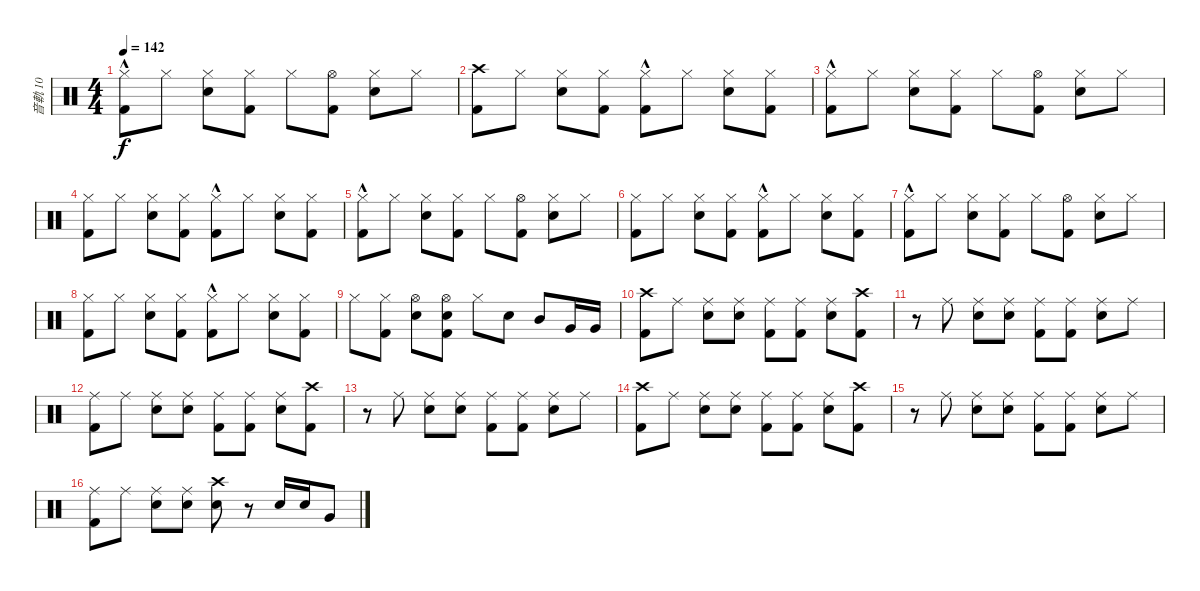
\track ("音軌 10" "音軌 10") {instrument percussion}
\staff {score}
\articulation defaults
\ts (4 4)
\tempo 142
\clef neutral
\ks c
("Hi-Hat (closed)"{hac} "Kick (hit) 2").8{dy f} "Hi-Hat (closed)".8 ("Hi-Hat (closed)" "Electric Snare (hit)").8 ("Hi-Hat (closed)" "Kick (hit) 2").8 "Hi-Hat (closed)".8 ("Hi-Hat (open)" "Kick (hit) 2").8 ("Hi-Hat (closed)" "Electric Snare (hit)").8 "Hi-Hat (closed)".8 |
("Crash high (hit)" "Kick (hit) 2").8 "Hi-Hat (closed)".8 ("Hi-Hat (closed)" "Electric Snare (hit)").8 ("Hi-Hat (closed)" "Kick (hit) 2").8 ("Hi-Hat (closed)"{hac} "Kick (hit) 2").8 "Hi-Hat (closed)".8 ("Hi-Hat (closed)" "Electric Snare (hit)").8 ("Hi-Hat (closed)" "Kick (hit) 2").8 |
("Hi-Hat (closed)"{hac} "Kick (hit) 2").8 "Hi-Hat (closed)".8 ("Hi-Hat (closed)" "Electric Snare (hit)").8 ("Hi-Hat (closed)" "Kick (hit) 2").8 "Hi-Hat (closed)".8 ("Hi-Hat (open)" "Kick (hit) 2").8 ("Hi-Hat (closed)" "Electric Snare (hit)").8 "Hi-Hat (closed)".8 |
("Hi-Hat (closed)" "Kick (hit) 2").8 "Hi-Hat (closed)".8 ("Hi-Hat (closed)" "Electric Snare (hit)").8 ("Hi-Hat (closed)" "Kick (hit) 2").8 ("Hi-Hat (closed)"{hac} "Kick (hit) 2").8 "Hi-Hat (closed)".8 ("Hi-Hat (closed)" "Electric Snare (hit)").8 ("Hi-Hat (closed)" "Kick (hit) 2").8 |
("Hi-Hat (closed)"{hac} "Kick (hit) 2").8 "Hi-Hat (closed)".8 ("Hi-Hat (closed)" "Electric Snare (hit)").8 ("Hi-Hat (closed)" "Kick (hit) 2").8 "Hi-Hat (closed)".8 ("Hi-Hat (open)" "Kick (hit) 2").8 ("Hi-Hat (closed)" "Electric Snare (hit)").8 "Hi-Hat (closed)".8 |
("Hi-Hat (closed)" "Kick (hit) 2").8 "Hi-Hat (closed)".8 ("Hi-Hat (closed)" "Electric Snare (hit)").8 ("Hi-Hat (closed)" "Kick (hit) 2").8 ("Hi-Hat (closed)"{hac} "Kick (hit) 2").8 "Hi-Hat (closed)".8 ("Hi-Hat (closed)" "Electric Snare (hit)").8 ("Hi-Hat (closed)" "Kick (hit) 2").8 |
("Hi-Hat (closed)"{hac} "Kick (hit) 2").8 "Hi-Hat (closed)".8 ("Hi-Hat (closed)" "Electric Snare (hit)").8 ("Hi-Hat (closed)" "Kick (hit) 2").8 "Hi-Hat (closed)".8 ("Hi-Hat (open)" "Kick (hit) 2").8 ("Hi-Hat (closed)" "Electric Snare (hit)").8 "Hi-Hat (closed)".8 |
("Hi-Hat (closed)" "Kick (hit) 2").8 "Hi-Hat (closed)".8 ("Hi-Hat (closed)" "Electric Snare (hit)").8 ("Hi-Hat (closed)" "Kick (hit) 2").8 ("Hi-Hat (closed)"{hac} "Kick (hit) 2").8 "Hi-Hat (closed)".8 ("Hi-Hat (closed)" "Electric Snare (hit)").8 ("Hi-Hat (closed)" "Kick (hit) 2").8 |
"Hi-Hat (closed)".8 ("Hi-Hat (closed)" "Kick (hit) 2").8 ("Hi-Hat (open)" "Electric Snare (hit)").8 ("Hi-Hat (open)" "Electric Snare (hit)" "Kick (hit) 2").8 "Hi-Hat (closed)".8 "Electric Snare (hit)".8 "Mid Tom (hit)".8 "Very Low Tom (hit)".16 "Very Low Tom (hit)".16 |
("Crash high (hit)" "Kick (hit) 2").8 "Ride (middle)".8 ("Ride (middle)" "Electric Snare (hit)").8 ("Ride (middle)" "Electric Snare (hit)").8 ("Ride (middle)" "Kick (hit) 2").8 ("Ride (middle)" "Kick (hit) 2").8 ("Ride (middle)" "Electric Snare (hit)").8 ("Crash high (hit)" "Kick (hit) 2").8 |
r.8 "Ride (middle)".8 ("Ride (middle)" "Electric Snare (hit)").8 ("Ride (middle)" "Electric Snare (hit)").8 ("Ride (middle)" "Kick (hit) 2").8 ("Ride (middle)" "Kick (hit) 2").8 ("Ride (middle)" "Electric Snare (hit)").8 "Ride (middle)".8 |
("Ride (middle)" "Kick (hit) 2").8 "Ride (middle)".8 ("Ride (middle)" "Electric Snare (hit)").8 ("Ride (middle)" "Electric Snare (hit)").8 ("Ride (middle)" "Kick (hit) 2").8 ("Ride (middle)" "Kick (hit) 2").8 ("Ride (middle)" "Electric Snare (hit)").8 ("Crash high (hit)" "Kick (hit) 2").8 |
r.8 "Ride (middle)".8 ("Ride (middle)" "Electric Snare (hit)").8 ("Ride (middle)" "Electric Snare (hit)").8 ("Ride (middle)" "Kick (hit) 2").8 ("Ride (middle)" "Kick (hit) 2").8 ("Ride (middle)" "Electric Snare (hit)").8 "Ride (middle)".8 |
("Crash high (hit)" "Kick (hit) 2").8 "Ride (middle)".8 ("Ride (middle)" "Electric Snare (hit)").8 ("Ride (middle)" "Electric Snare (hit)").8 ("Ride (middle)" "Kick (hit) 2").8 ("Ride (middle)" "Kick (hit) 2").8 ("Ride (middle)" "Electric Snare (hit)").8 ("Crash high (hit)" "Kick (hit) 2").8 |
r.8 "Ride (middle)".8 ("Ride (middle)" "Electric Snare (hit)").8 ("Ride (middle)" "Electric Snare (hit)").8 ("Ride (middle)" "Kick (hit) 2").8 ("Ride (middle)" "Kick (hit) 2").8 ("Ride (middle)" "Electric Snare (hit)").8 "Ride (middle)".8 |
("Ride (middle)" "Kick (hit) 2").8 "Ride (middle)".8 ("Ride (middle)" "Electric Snare (hit)").8 ("Ride (middle)" "Electric Snare (hit)").8 ("Crash high (hit)" "Electric Snare (hit)").8 r.8 "Electric Snare (hit)".16 "Electric Snare (hit)".16 "Very Low Tom (hit)".8
